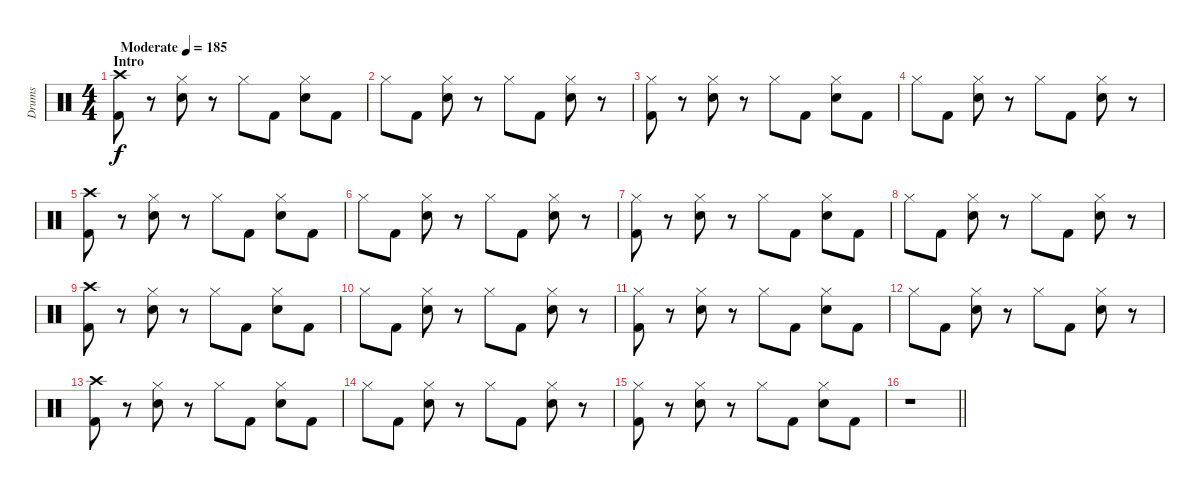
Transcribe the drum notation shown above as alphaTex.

\track ("Drums" "Drums") {instrument percussion}
\staff {score}
\articulation defaults
\ts (4 4)
\section ("" "Intro")
\tempo (185 "Moderate")
\clef neutral
\ks c
("Crash high (hit)" "Kick (hit) 2").8{dy f} r.8 ("Hi-Hat (closed)" "Snare (hit) 2").8 r.8 "Hi-Hat (closed)".8 "Kick (hit) 2".8 ("Hi-Hat (closed)" "Snare (hit) 2").8 "Kick (hit) 2".8 |
"Hi-Hat (closed)".8 "Kick (hit) 2".8 ("Hi-Hat (closed)" "Snare (hit) 2").8 r.8 "Hi-Hat (closed)".8 "Kick (hit) 2".8 ("Hi-Hat (closed)" "Snare (hit) 2").8 r.8 |
("Hi-Hat (closed)" "Kick (hit) 2").8 r.8 ("Hi-Hat (closed)" "Snare (hit) 2").8 r.8 "Hi-Hat (closed)".8 "Kick (hit) 2".8 ("Hi-Hat (closed)" "Snare (hit) 2").8 "Kick (hit) 2".8 |
"Hi-Hat (closed)".8 "Kick (hit) 2".8 ("Hi-Hat (closed)" "Snare (hit) 2").8 r.8 "Hi-Hat (closed)".8 "Kick (hit) 2".8 ("Hi-Hat (closed)" "Snare (hit) 2").8 r.8 |
("Crash high (hit)" "Kick (hit) 2").8 r.8 ("Hi-Hat (closed)" "Snare (hit) 2").8 r.8 "Hi-Hat (closed)".8 "Kick (hit) 2".8 ("Hi-Hat (closed)" "Snare (hit) 2").8 "Kick (hit) 2".8 |
"Hi-Hat (closed)".8 "Kick (hit) 2".8 ("Hi-Hat (closed)" "Snare (hit) 2").8 r.8 "Hi-Hat (closed)".8 "Kick (hit) 2".8 ("Hi-Hat (closed)" "Snare (hit) 2").8 r.8 |
("Hi-Hat (closed)" "Kick (hit) 2").8 r.8 ("Hi-Hat (closed)" "Snare (hit) 2").8 r.8 "Hi-Hat (closed)".8 "Kick (hit) 2".8 ("Hi-Hat (closed)" "Snare (hit) 2").8 "Kick (hit) 2".8 |
"Hi-Hat (closed)".8 "Kick (hit) 2".8 ("Hi-Hat (closed)" "Snare (hit) 2").8 r.8 "Hi-Hat (closed)".8 "Kick (hit) 2".8 ("Hi-Hat (closed)" "Snare (hit) 2").8 r.8 |
("Crash high (hit)" "Kick (hit) 2").8 r.8 ("Hi-Hat (closed)" "Snare (hit) 2").8 r.8 "Hi-Hat (closed)".8 "Kick (hit) 2".8 ("Hi-Hat (closed)" "Snare (hit) 2").8 "Kick (hit) 2".8 |
"Hi-Hat (closed)".8 "Kick (hit) 2".8 ("Hi-Hat (closed)" "Snare (hit) 2").8 r.8 "Hi-Hat (closed)".8 "Kick (hit) 2".8 ("Hi-Hat (closed)" "Snare (hit) 2").8 r.8 |
("Hi-Hat (closed)" "Kick (hit) 2").8 r.8 ("Hi-Hat (closed)" "Snare (hit) 2").8 r.8 "Hi-Hat (closed)".8 "Kick (hit) 2".8 ("Hi-Hat (closed)" "Snare (hit) 2").8 "Kick (hit) 2".8 |
"Hi-Hat (closed)".8 "Kick (hit) 2".8 ("Hi-Hat (closed)" "Snare (hit) 2").8 r.8 "Hi-Hat (closed)".8 "Kick (hit) 2".8 ("Hi-Hat (closed)" "Snare (hit) 2").8 r.8 |
("Crash high (hit)" "Kick (hit) 2").8 r.8 ("Hi-Hat (closed)" "Snare (hit) 2").8 r.8 "Hi-Hat (closed)".8 "Kick (hit) 2".8 ("Hi-Hat (closed)" "Snare (hit) 2").8 "Kick (hit) 2".8 |
"Hi-Hat (closed)".8 "Kick (hit) 2".8 ("Hi-Hat (closed)" "Snare (hit) 2").8 r.8 "Hi-Hat (closed)".8 "Kick (hit) 2".8 ("Hi-Hat (closed)" "Snare (hit) 2").8 r.8 |
("Hi-Hat (closed)" "Kick (hit) 2").8 r.8 ("Hi-Hat (closed)" "Snare (hit) 2").8 r.8 "Hi-Hat (closed)".8 "Kick (hit) 2".8 ("Hi-Hat (closed)" "Snare (hit) 2").8 "Kick (hit) 2".8 |
\barLineRight lightlight
r.1
